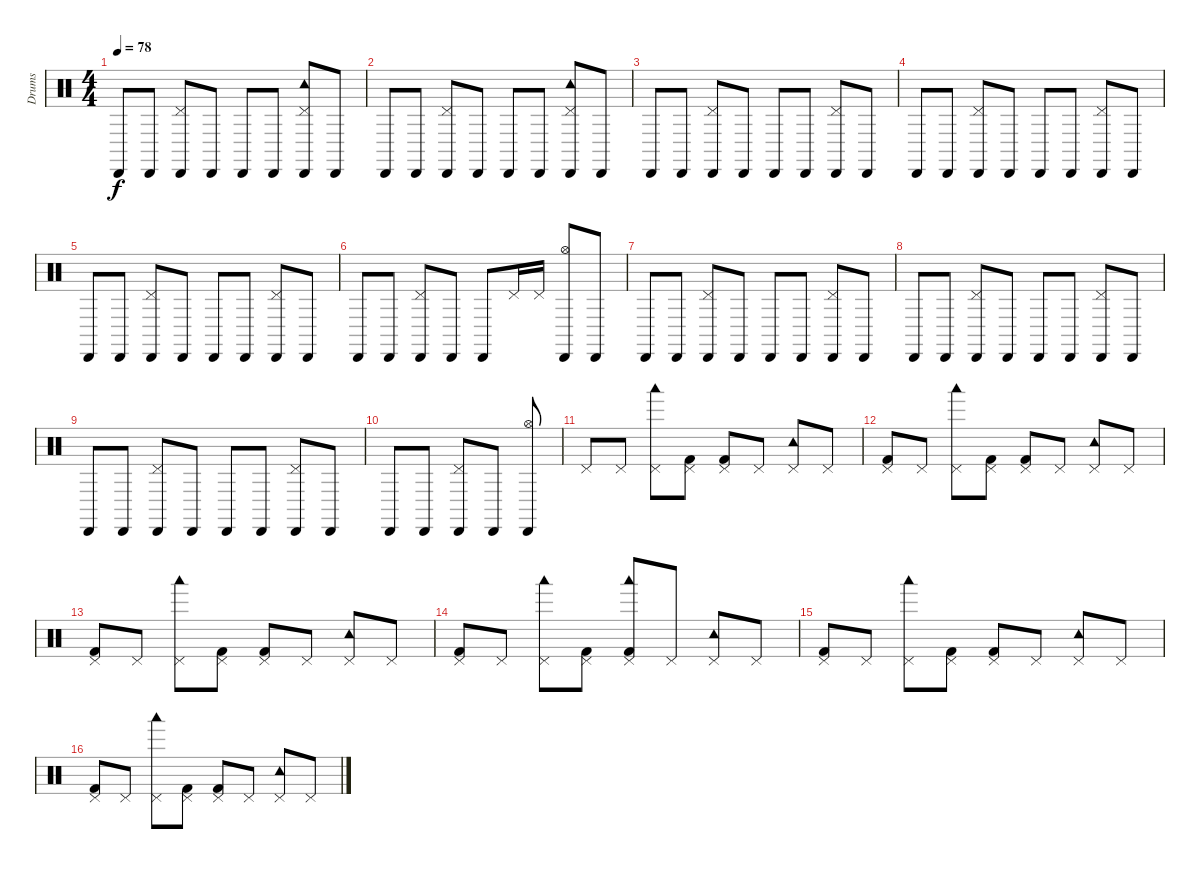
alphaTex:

\track ("Drums" "Drums") {instrument percussion}
\staff {score}
\articulation defaults
\ts (4 4)
\tempo 78
\clef neutral
\ks c "Cabasa (hit)".8{dy f} "Cabasa (hit)".8
("Cabasa (hit)" "Pedal Hi-Hat (hit)").8{volume 6} "Cabasa (hit)".8{volume 4} "Cabasa (hit)".8 "Cabasa (hit)".8 ("Cabasa (hit)" "Pedal Hi-Hat (hit)" "Tambourine (hit)").8{volume 6} "Cabasa (hit)".8{volume 4} |
"Cabasa (hit)".8 "Cabasa (hit)".8 ("Cabasa (hit)" "Pedal Hi-Hat (hit)").8{volume 6} "Cabasa (hit)".8{volume 4} "Cabasa (hit)".8 "Cabasa (hit)".8 ("Cabasa (hit)" "Pedal Hi-Hat (hit)" "Tambourine (hit)").8{volume 6} "Cabasa (hit)".8{volume 4} |
"Cabasa (hit)".8 "Cabasa (hit)".8 ("Cabasa (hit)" "Pedal Hi-Hat (hit)").8{volume 6} "Cabasa (hit)".8{volume 4} "Cabasa (hit)".8 "Cabasa (hit)".8 ("Cabasa (hit)" "Pedal Hi-Hat (hit)").8{volume 6} "Cabasa (hit)".8{volume 4} |
"Cabasa (hit)".8 "Cabasa (hit)".8 ("Cabasa (hit)" "Pedal Hi-Hat (hit)").8{volume 6} "Cabasa (hit)".8{volume 4} "Cabasa (hit)".8 "Cabasa (hit)".8 ("Cabasa (hit)" "Pedal Hi-Hat (hit)").8{volume 6} "Cabasa (hit)".8{volume 4} |
"Cabasa (hit)".8 "Cabasa (hit)".8 ("Cabasa (hit)" "Pedal Hi-Hat (hit)").8{volume 6} "Cabasa (hit)".8{volume 4} "Cabasa (hit)".8 "Cabasa (hit)".8 ("Cabasa (hit)" "Pedal Hi-Hat (hit)").8{volume 6} "Cabasa (hit)".8{volume 4} |
"Cabasa (hit)".8 "Cabasa (hit)".8 ("Cabasa (hit)" "Pedal Hi-Hat (hit)").8{volume 6} "Cabasa (hit)".8{volume 4} "Cabasa (hit)".8 "Pedal Hi-Hat (hit)".16 "Pedal Hi-Hat (hit)".16 ("Cabasa (hit)" "Hi-Hat (open)").8{volume 6} "Cabasa (hit)".8{volume 4} |
"Cabasa (hit)".8 "Cabasa (hit)".8 ("Cabasa (hit)" "Pedal Hi-Hat (hit)").8{volume 6} "Cabasa (hit)".8{volume 4} "Cabasa (hit)".8 "Cabasa (hit)".8 ("Cabasa (hit)" "Pedal Hi-Hat (hit)").8{volume 6} "Cabasa (hit)".8{volume 4} |
"Cabasa (hit)".8 "Cabasa (hit)".8 ("Cabasa (hit)" "Pedal Hi-Hat (hit)").8{volume 6} "Cabasa (hit)".8{volume 4} "Cabasa (hit)".8 "Cabasa (hit)".8 ("Cabasa (hit)" "Pedal Hi-Hat (hit)").8{volume 6} "Cabasa (hit)".8{volume 4} |
"Cabasa (hit)".8 "Cabasa (hit)".8 ("Cabasa (hit)" "Pedal Hi-Hat (hit)").8{volume 6} "Cabasa (hit)".8{volume 4} "Cabasa (hit)".8 "Cabasa (hit)".8 ("Cabasa (hit)" "Pedal Hi-Hat (hit)").8{volume 6} "Cabasa (hit)".8{volume 4} |
"Cabasa (hit)".8 "Cabasa (hit)".8 ("Cabasa (hit)" "Pedal Hi-Hat (hit)").8{volume 6} "Cabasa (hit)".8{volume 4} ("Cabasa (hit)" "Hi-Hat (open)").8{volume 6} |
"Pedal Hi-Hat (hit)".8 "Pedal Hi-Hat (hit)".8 ("Pedal Hi-Hat (hit)" "Woodblock low (hit)").8 ("Pedal Hi-Hat (hit)" "Kick (hit) 2").8 ("Pedal Hi-Hat (hit)" "Kick (hit) 2").8 "Pedal Hi-Hat (hit)".8 ("Pedal Hi-Hat (hit)" "Tambourine (hit)").8 "Pedal Hi-Hat (hit)".8 |
("Pedal Hi-Hat (hit)" "Kick (hit) 2").8 "Pedal Hi-Hat (hit)".8 ("Pedal Hi-Hat (hit)" "Woodblock low (hit)").8 ("Pedal Hi-Hat (hit)" "Kick (hit) 2").8 ("Pedal Hi-Hat (hit)" "Kick (hit) 2").8 "Pedal Hi-Hat (hit)".8 ("Pedal Hi-Hat (hit)" "Tambourine (hit)").8 "Pedal Hi-Hat (hit)".8 |
("Pedal Hi-Hat (hit)" "Kick (hit) 2").8 "Pedal Hi-Hat (hit)".8 ("Pedal Hi-Hat (hit)" "Woodblock low (hit)").8 ("Pedal Hi-Hat (hit)" "Kick (hit) 2").8 ("Pedal Hi-Hat (hit)" "Kick (hit) 2").8 "Pedal Hi-Hat (hit)".8 ("Pedal Hi-Hat (hit)" "Tambourine (hit)").8 "Pedal Hi-Hat (hit)".8 |
("Pedal Hi-Hat (hit)" "Kick (hit) 2").8 "Pedal Hi-Hat (hit)".8 ("Pedal Hi-Hat (hit)" "Woodblock low (hit)").8 ("Pedal Hi-Hat (hit)" "Kick (hit) 2").8 ("Pedal Hi-Hat (hit)" "Woodblock low (hit)" "Kick (hit) 2").8 "Pedal Hi-Hat (hit)".8 ("Pedal Hi-Hat (hit)" "Tambourine (hit)").8 "Pedal Hi-Hat (hit)".8 |
("Pedal Hi-Hat (hit)" "Kick (hit) 2").8 "Pedal Hi-Hat (hit)".8 ("Pedal Hi-Hat (hit)" "Woodblock low (hit)").8 ("Pedal Hi-Hat (hit)" "Kick (hit) 2").8 ("Pedal Hi-Hat (hit)" "Kick (hit) 2").8 "Pedal Hi-Hat (hit)".8 ("Pedal Hi-Hat (hit)" "Tambourine (hit)").8 "Pedal Hi-Hat (hit)".8 |
("Pedal Hi-Hat (hit)" "Kick (hit) 2").8 "Pedal Hi-Hat (hit)".8 ("Pedal Hi-Hat (hit)" "Woodblock low (hit)").8 ("Pedal Hi-Hat (hit)" "Kick (hit) 2").8 ("Pedal Hi-Hat (hit)" "Kick (hit) 2").8 "Pedal Hi-Hat (hit)".8 ("Pedal Hi-Hat (hit)" "Tambourine (hit)").8 "Pedal Hi-Hat (hit)".8
